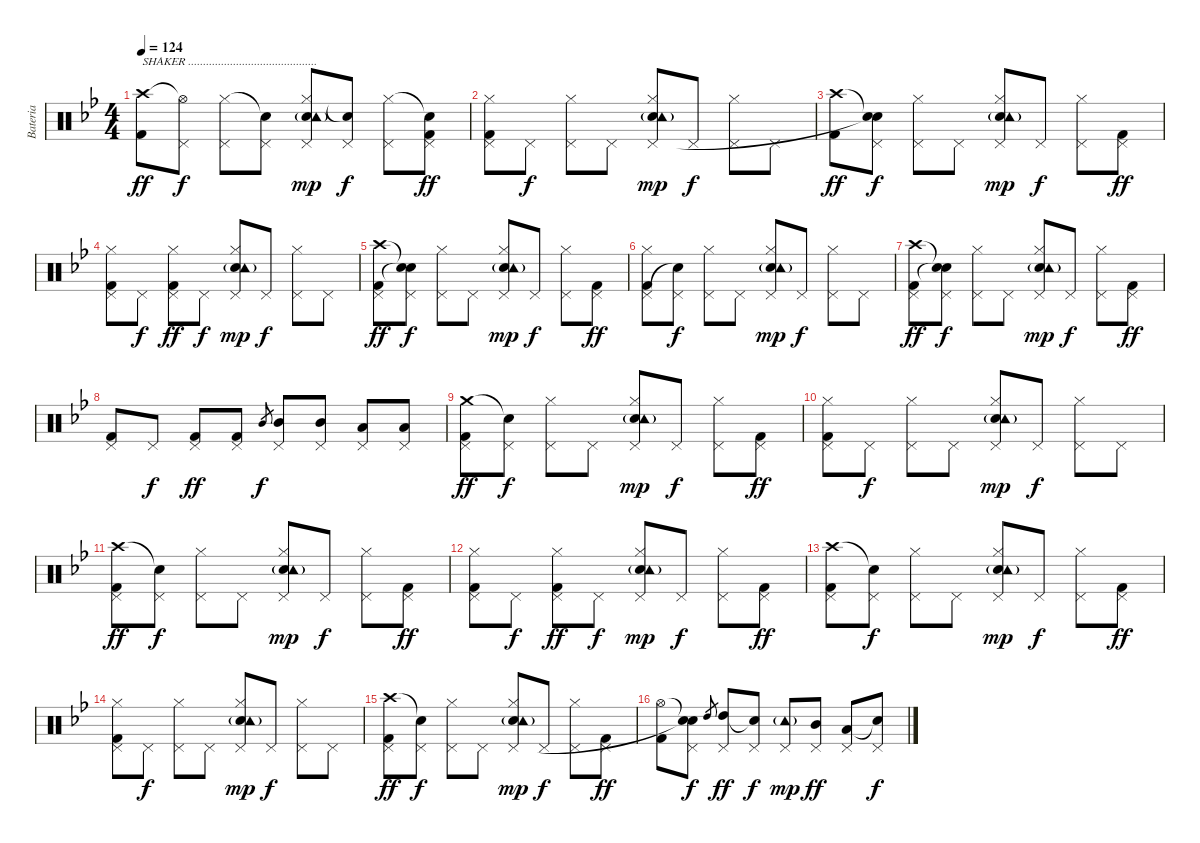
\track ("Bateria" "Bateria") {instrument percussion}
\staff {score}
\articulation defaults
\ts (4 4)
\tempo 124
\clef neutral
\ks bb
("Crash high (hit)" "Kick (hit) 2").8{txt "SHAKER ..........................................." dy ff} ("Hi-Hat (open)"{t} "Pedal Hi-Hat (hit)").8{dy f} ("Hi-Hat (closed)" "Pedal Hi-Hat (hit)").8 ("Snare (hit)"{t} "Pedal Hi-Hat (hit)").8 ("Hi-Hat (closed)" "Electric Snare (hit)" "Pedal Hi-Hat (hit)" "Tambourine (hit)"{g}).8{dy mp} ("Snare (hit)"{t} "Pedal Hi-Hat (hit)").8{dy f} ("Hi-Hat (closed)" "Pedal Hi-Hat (hit)").8 ("Snare (hit)"{t} "Pedal Hi-Hat (hit)" "Kick (hit) 2").8{dy ff} |
("Hi-Hat (closed)" "Pedal Hi-Hat (hit)" "Kick (hit) 2").8 "Pedal Hi-Hat (hit)".8{dy f} ("Hi-Hat (closed)" "Pedal Hi-Hat (hit)").8 "Pedal Hi-Hat (hit)".8 ("Hi-Hat (closed)" "Electric Snare (hit)" "Pedal Hi-Hat (hit)" "Tambourine (hit)"{g}).8{dy mp} "Pedal Hi-Hat (hit)".8{dy f} ("Hi-Hat (closed)" "Pedal Hi-Hat (hit)").8 "Pedal Hi-Hat (hit)".8 |
("Crash high (hit)" "Kick (hit) 2").8{dy ff} ("Snare (hit)"{t} "Pedal Hi-Hat (hit)" "Snare (hit)"{t}).8{dy f} ("Hi-Hat (closed)" "Pedal Hi-Hat (hit)").8 "Pedal Hi-Hat (hit)".8 ("Hi-Hat (closed)" "Electric Snare (hit)" "Pedal Hi-Hat (hit)" "Tambourine (hit)"{g}).8{dy mp} "Pedal Hi-Hat (hit)".8{dy f} ("Hi-Hat (closed)" "Pedal Hi-Hat (hit)").8 ("Pedal Hi-Hat (hit)" "Kick (hit) 2").8{dy ff} |
("Hi-Hat (closed)" "Pedal Hi-Hat (hit)" "Kick (hit) 2").8 "Pedal Hi-Hat (hit)".8{dy f} ("Hi-Hat (closed)" "Pedal Hi-Hat (hit)" "Kick (hit) 2").8{dy ff} "Pedal Hi-Hat (hit)".8{dy f} ("Hi-Hat (closed)" "Electric Snare (hit)" "Pedal Hi-Hat (hit)" "Tambourine (hit)"{g}).8{dy mp} "Pedal Hi-Hat (hit)".8{dy f} ("Hi-Hat (closed)" "Pedal Hi-Hat (hit)").8 "Pedal Hi-Hat (hit)".8 |
("Crash high (hit)" "Pedal Hi-Hat (hit)" "Kick (hit) 2").8{dy ff} ("Snare (hit)"{t} "Pedal Hi-Hat (hit)" "Snare (hit)"{t}).8{dy f} ("Hi-Hat (closed)" "Pedal Hi-Hat (hit)").8 "Pedal Hi-Hat (hit)".8 ("Hi-Hat (closed)" "Electric Snare (hit)" "Pedal Hi-Hat (hit)" "Tambourine (hit)"{g}).8{dy mp} "Pedal Hi-Hat (hit)".8{dy f} ("Hi-Hat (closed)" "Pedal Hi-Hat (hit)").8 ("Pedal Hi-Hat (hit)" "Kick (hit) 2").8{dy ff} |
("Hi-Hat (closed)" "Pedal Hi-Hat (hit)" "Kick (hit) 2").8 ("Pedal Hi-Hat (hit)" "Snare (hit)"{t}).8{dy f} ("Hi-Hat (closed)" "Pedal Hi-Hat (hit)").8 "Pedal Hi-Hat (hit)".8 ("Hi-Hat (closed)" "Electric Snare (hit)" "Pedal Hi-Hat (hit)" "Tambourine (hit)"{g}).8{dy mp} "Pedal Hi-Hat (hit)".8{dy f} ("Hi-Hat (closed)" "Pedal Hi-Hat (hit)").8 "Pedal Hi-Hat (hit)".8 |
("Crash high (hit)" "Pedal Hi-Hat (hit)" "Kick (hit) 2").8{dy ff} ("Snare (hit)"{t} "Pedal Hi-Hat (hit)" "Snare (hit)"{t}).8{dy f} ("Hi-Hat (closed)" "Pedal Hi-Hat (hit)").8 "Pedal Hi-Hat (hit)".8 ("Hi-Hat (closed)" "Electric Snare (hit)" "Pedal Hi-Hat (hit)" "Tambourine (hit)"{g}).8{dy mp} "Pedal Hi-Hat (hit)".8{dy f} ("Hi-Hat (closed)" "Pedal Hi-Hat (hit)").8 ("Pedal Hi-Hat (hit)" "Kick (hit) 2").8{dy ff} |
("Pedal Hi-Hat (hit)" "Kick (hit) 2").8 "Pedal Hi-Hat (hit)".8{dy f} ("Pedal Hi-Hat (hit)" "Kick (hit) 2").8{dy ff} ("Pedal Hi-Hat (hit)" "Kick (hit) 2").8 "Mid Tom (hit)".8{gr dy f} ("Mid Tom (hit)" "Pedal Hi-Hat (hit)").8 ("Mid Tom (hit)" "Pedal Hi-Hat (hit)").8 ("Low Tom (hit)" "Pedal Hi-Hat (hit)").8 ("Low Tom (hit)" "Pedal Hi-Hat (hit)").8 |
("Crash medium (hit)" "Pedal Hi-Hat (hit)" "Kick (hit) 2").8{dy ff} ("Snare (hit)"{t} "Pedal Hi-Hat (hit)").8{dy f} ("Hi-Hat (closed)" "Pedal Hi-Hat (hit)").8 "Pedal Hi-Hat (hit)".8 ("Hi-Hat (closed)" "Electric Snare (hit)" "Pedal Hi-Hat (hit)" "Tambourine (hit)"{g}).8{dy mp} "Pedal Hi-Hat (hit)".8{dy f} ("Hi-Hat (closed)" "Pedal Hi-Hat (hit)").8 ("Pedal Hi-Hat (hit)" "Kick (hit) 2").8{dy ff} |
("Hi-Hat (closed)" "Pedal Hi-Hat (hit)" "Kick (hit) 2").8 "Pedal Hi-Hat (hit)".8{dy f} ("Hi-Hat (closed)" "Pedal Hi-Hat (hit)").8 "Pedal Hi-Hat (hit)".8 ("Hi-Hat (closed)" "Electric Snare (hit)" "Pedal Hi-Hat (hit)" "Tambourine (hit)"{g}).8{dy mp} "Pedal Hi-Hat (hit)".8{dy f} ("Hi-Hat (closed)" "Pedal Hi-Hat (hit)").8 "Pedal Hi-Hat (hit)".8 |
("Crash high (hit)" "Pedal Hi-Hat (hit)" "Kick (hit) 2").8{dy ff} ("Snare (hit)"{t} "Pedal Hi-Hat (hit)").8{dy f} ("Hi-Hat (closed)" "Pedal Hi-Hat (hit)").8 "Pedal Hi-Hat (hit)".8 ("Hi-Hat (closed)" "Electric Snare (hit)" "Pedal Hi-Hat (hit)" "Tambourine (hit)"{g}).8{dy mp} "Pedal Hi-Hat (hit)".8{dy f} ("Hi-Hat (closed)" "Pedal Hi-Hat (hit)").8 ("Pedal Hi-Hat (hit)" "Kick (hit) 2").8{dy ff} |
("Hi-Hat (closed)" "Pedal Hi-Hat (hit)" "Kick (hit) 2").8 "Pedal Hi-Hat (hit)".8{dy f} ("Hi-Hat (closed)" "Pedal Hi-Hat (hit)" "Kick (hit) 2").8{dy ff} "Pedal Hi-Hat (hit)".8{dy f} ("Hi-Hat (closed)" "Electric Snare (hit)" "Pedal Hi-Hat (hit)" "Tambourine (hit)"{g}).8{dy mp} "Pedal Hi-Hat (hit)".8{dy f} ("Hi-Hat (closed)" "Pedal Hi-Hat (hit)").8 ("Pedal Hi-Hat (hit)" "Kick (hit) 2").8{dy ff} |
("Crash high (hit)" "Pedal Hi-Hat (hit)" "Kick (hit) 2").8 ("Snare (hit)"{t} "Pedal Hi-Hat (hit)").8{dy f} ("Hi-Hat (closed)" "Pedal Hi-Hat (hit)").8 "Pedal Hi-Hat (hit)".8 ("Hi-Hat (closed)" "Electric Snare (hit)" "Pedal Hi-Hat (hit)" "Tambourine (hit)"{g}).8{dy mp} "Pedal Hi-Hat (hit)".8{dy f} ("Hi-Hat (closed)" "Pedal Hi-Hat (hit)").8 ("Pedal Hi-Hat (hit)" "Kick (hit) 2").8{dy ff} |
("Hi-Hat (closed)" "Pedal Hi-Hat (hit)" "Kick (hit) 2").8 "Pedal Hi-Hat (hit)".8{dy f} ("Hi-Hat (closed)" "Pedal Hi-Hat (hit)").8 "Pedal Hi-Hat (hit)".8 ("Hi-Hat (closed)" "Electric Snare (hit)" "Pedal Hi-Hat (hit)" "Tambourine (hit)"{g}).8{dy mp} "Pedal Hi-Hat (hit)".8{dy f} ("Hi-Hat (closed)" "Pedal Hi-Hat (hit)").8 "Pedal Hi-Hat (hit)".8 |
("Crash high (hit)" "Pedal Hi-Hat (hit)" "Kick (hit) 2").8{dy ff} ("Snare (hit)"{t} "Pedal Hi-Hat (hit)").8{dy f} ("Hi-Hat (closed)" "Pedal Hi-Hat (hit)").8 "Pedal Hi-Hat (hit)".8 ("Hi-Hat (closed)" "Electric Snare (hit)" "Pedal Hi-Hat (hit)" "Tambourine (hit)"{g}).8{dy mp} "Pedal Hi-Hat (hit)".8{dy f} ("Hi-Hat (closed)" "Pedal Hi-Hat (hit)").8 ("Pedal Hi-Hat (hit)" "Kick (hit) 2").8{dy ff} |
("Hi-Hat (open)" "Kick (hit) 2").8 ("Snare (hit)"{t} "Pedal Hi-Hat (hit)" "Snare (hit)"{t}).8{dy f} "High Tom (hit)".8{gr} ("High Tom (hit)" "Pedal Hi-Hat (hit)").8{dy ff} ("Snare (hit)"{t} "Pedal Hi-Hat (hit)").8{dy f} ("Pedal Hi-Hat (hit)" "Tambourine (hit)"{g}).8{dy mp} ("Mid Tom (hit)" "Pedal Hi-Hat (hit)").8{dy ff} ("Low Tom (hit)" "Pedal Hi-Hat (hit)").8 ("Snare (hit)"{t} "Pedal Hi-Hat (hit)").8{dy f}
